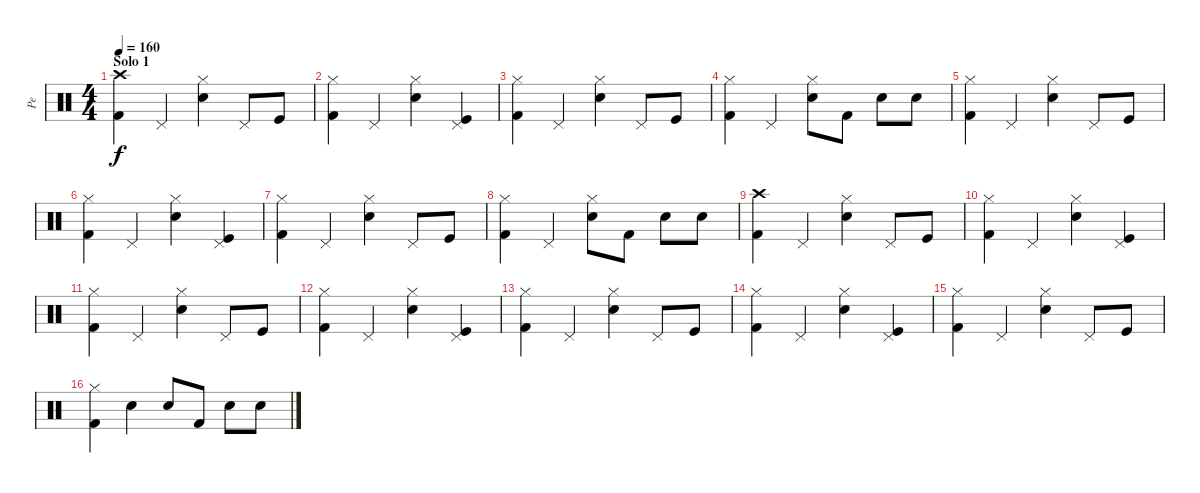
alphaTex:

\track ("Pe" "Pe") {instrument percussion}
\staff {score}
\articulation defaults
\ts (4 4)
\section ("" "Solo 1")
\tempo 160
\clef neutral
\ks c
("Kick (hit) 2" "Crash high (hit)").4{dy f} "Pedal Hi-Hat (hit)".4 ("Electric Snare (hit)" "Hi-Hat (closed)").4 "Pedal Hi-Hat (hit)".8 "Kick (hit)".8 |
("Kick (hit) 2" "Hi-Hat (closed)").4 "Pedal Hi-Hat (hit)".4 ("Electric Snare (hit)" "Hi-Hat (closed)").4 ("Kick (hit)" "Pedal Hi-Hat (hit)").4 |
("Kick (hit) 2" "Hi-Hat (closed)").4 "Pedal Hi-Hat (hit)".4 ("Electric Snare (hit)" "Hi-Hat (closed)").4 "Pedal Hi-Hat (hit)".8 "Kick (hit)".8 |
("Kick (hit) 2" "Hi-Hat (closed)").4 "Pedal Hi-Hat (hit)".4 ("Electric Snare (hit)" "Hi-Hat (closed)").8 "Kick (hit) 2".8 "Electric Snare (hit)".8 "Electric Snare (hit)".8 |
("Kick (hit) 2" "Hi-Hat (closed)").4 "Pedal Hi-Hat (hit)".4 ("Electric Snare (hit)" "Hi-Hat (closed)").4 "Pedal Hi-Hat (hit)".8 "Kick (hit)".8 |
("Kick (hit) 2" "Hi-Hat (closed)").4 "Pedal Hi-Hat (hit)".4 ("Electric Snare (hit)" "Hi-Hat (closed)").4 ("Kick (hit)" "Pedal Hi-Hat (hit)").4 |
("Kick (hit) 2" "Hi-Hat (closed)").4 "Pedal Hi-Hat (hit)".4 ("Electric Snare (hit)" "Hi-Hat (closed)").4 "Pedal Hi-Hat (hit)".8 "Kick (hit)".8 |
("Kick (hit) 2" "Hi-Hat (closed)").4 "Pedal Hi-Hat (hit)".4 ("Electric Snare (hit)" "Hi-Hat (closed)").8 "Kick (hit) 2".8 "Electric Snare (hit)".8 "Electric Snare (hit)".8 |
("Kick (hit) 2" "Crash high (hit)").4 "Pedal Hi-Hat (hit)".4 ("Electric Snare (hit)" "Hi-Hat (closed)").4 "Pedal Hi-Hat (hit)".8 "Kick (hit)".8 |
("Kick (hit) 2" "Hi-Hat (closed)").4 "Pedal Hi-Hat (hit)".4 ("Electric Snare (hit)" "Hi-Hat (closed)").4 ("Kick (hit)" "Pedal Hi-Hat (hit)").4 |
("Kick (hit) 2" "Hi-Hat (closed)").4 "Pedal Hi-Hat (hit)".4 ("Electric Snare (hit)" "Hi-Hat (closed)").4 "Pedal Hi-Hat (hit)".8 "Kick (hit)".8 |
("Kick (hit) 2" "Hi-Hat (closed)").4 "Pedal Hi-Hat (hit)".4 ("Electric Snare (hit)" "Hi-Hat (closed)").4 ("Kick (hit)" "Pedal Hi-Hat (hit)").4 |
("Kick (hit) 2" "Hi-Hat (closed)").4 "Pedal Hi-Hat (hit)".4 ("Electric Snare (hit)" "Hi-Hat (closed)").4 "Pedal Hi-Hat (hit)".8 "Kick (hit)".8 |
("Kick (hit) 2" "Hi-Hat (closed)").4 "Pedal Hi-Hat (hit)".4 ("Electric Snare (hit)" "Hi-Hat (closed)").4 ("Kick (hit)" "Pedal Hi-Hat (hit)").4 |
("Kick (hit) 2" "Hi-Hat (closed)").4 "Pedal Hi-Hat (hit)".4 ("Electric Snare (hit)" "Hi-Hat (closed)").4 "Pedal Hi-Hat (hit)".8 "Kick (hit)".8 |
("Kick (hit) 2" "Hi-Hat (closed)").4 "Electric Snare (hit)".4 "Electric Snare (hit)".8 "Kick (hit) 2".8 "Electric Snare (hit)".8 "Electric Snare (hit)".8
